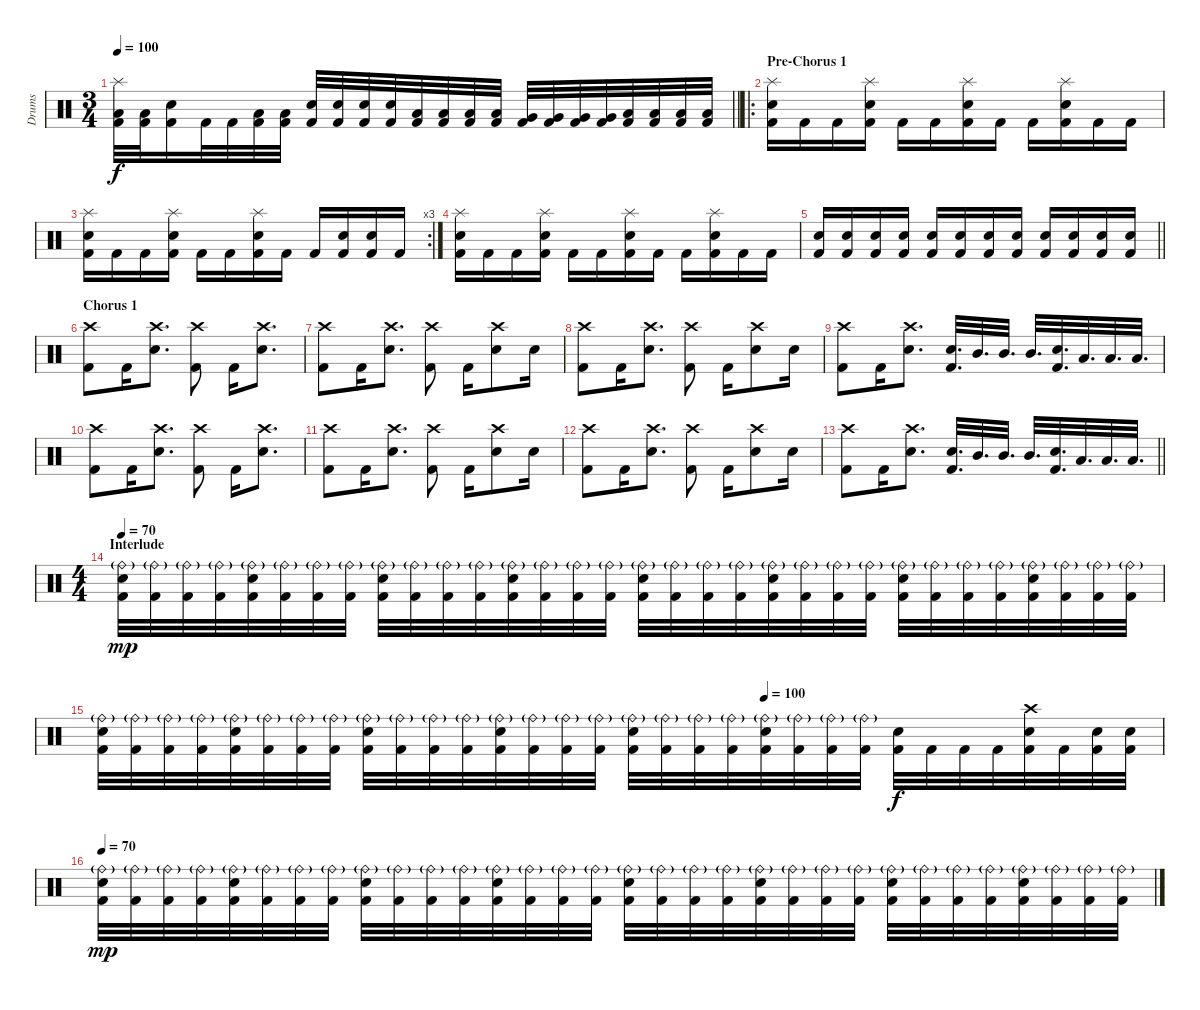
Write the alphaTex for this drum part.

\track ("Drums" "Drums") {instrument percussion}
\staff {score}
\articulation defaults
\ts (3 4)
\tempo 100
\clef neutral
\barLineRight lightlight
\ks c
("Splash (hit)" "Low Floor Tom (hit)" "Kick (hit) 2").32{dy f} ("Low Floor Tom (hit)" "Kick (hit) 2").32 ("Electric Snare (hit)" "Kick (hit) 2").16 "Kick (hit) 2".32 "Kick (hit) 2".32 ("Low Floor Tom (hit)" "Kick (hit) 2").32 ("Low Floor Tom (hit)" "Kick (hit) 2").32 ("Electric Snare (hit)" "Kick (hit) 2").32 ("Electric Snare (hit)" "Kick (hit) 2").32 ("Electric Snare (hit)" "Kick (hit) 2").32 ("Electric Snare (hit)" "Kick (hit) 2").32 ("Low Tom (hit)" "Kick (hit) 2").32 ("Low Tom (hit)" "Kick (hit) 2").32 ("Low Tom (hit)" "Kick (hit) 2").32 ("Low Tom (hit)" "Kick (hit) 2").32 ("Very Low Tom (hit)" "Kick (hit) 2").32 ("Very Low Tom (hit)" "Kick (hit) 2").32 ("Very Low Tom (hit)" "Kick (hit) 2").32 ("Very Low Tom (hit)" "Kick (hit) 2").32 ("Low Floor Tom (hit)" "Kick (hit) 2").32 ("Low Floor Tom (hit)" "Kick (hit) 2").32 ("Low Floor Tom (hit)" "Kick (hit) 2").32 ("Low Floor Tom (hit)" "Kick (hit) 2").32 |
\ro
\section ("" "Pre-Chorus 1")
("Splash (hit)" "Electric Snare (hit)" "Kick (hit) 2").16 "Kick (hit) 2".16 "Kick (hit) 2".16 ("Splash (hit)" "Electric Snare (hit)" "Kick (hit) 2").16 "Kick (hit) 2".16 "Kick (hit) 2".16 ("Splash (hit)" "Electric Snare (hit)" "Kick (hit) 2").16 "Kick (hit) 2".16 "Kick (hit) 2".16 ("Splash (hit)" "Electric Snare (hit)" "Kick (hit) 2").16 "Kick (hit) 2".16 "Kick (hit) 2".16 |
\rc 3
("Splash (hit)" "Electric Snare (hit)" "Kick (hit) 2").16 "Kick (hit) 2".16 "Kick (hit) 2".16 ("Splash (hit)" "Electric Snare (hit)" "Kick (hit) 2").16 "Kick (hit) 2".16 "Kick (hit) 2".16 ("Splash (hit)" "Electric Snare (hit)" "Kick (hit) 2").16 "Kick (hit) 2".16 "Kick (hit) 2".16 ("Electric Snare (hit)" "Kick (hit) 2").16 ("Electric Snare (hit)" "Kick (hit) 2").16 "Kick (hit) 2".16 |
("Splash (hit)" "Electric Snare (hit)" "Kick (hit) 2").16 "Kick (hit) 2".16 "Kick (hit) 2".16 ("Splash (hit)" "Electric Snare (hit)" "Kick (hit) 2").16 "Kick (hit) 2".16 "Kick (hit) 2".16 ("Splash (hit)" "Electric Snare (hit)" "Kick (hit) 2").16 "Kick (hit) 2".16 "Kick (hit) 2".16 ("Splash (hit)" "Electric Snare (hit)" "Kick (hit) 2").16 "Kick (hit) 2".16 "Kick (hit) 2".16 |
\barLineRight lightlight
("Electric Snare (hit)" "Kick (hit) 2").16 ("Electric Snare (hit)" "Kick (hit) 2").16 ("Electric Snare (hit)" "Kick (hit) 2").16 ("Electric Snare (hit)" "Kick (hit) 2").16 ("Electric Snare (hit)" "Kick (hit) 2").16 ("Electric Snare (hit)" "Kick (hit) 2").16 ("Electric Snare (hit)" "Kick (hit) 2").16 ("Electric Snare (hit)" "Kick (hit) 2").16 ("Electric Snare (hit)" "Kick (hit) 2").16 ("Electric Snare (hit)" "Kick (hit) 2").16 ("Electric Snare (hit)" "Kick (hit) 2").16 ("Electric Snare (hit)" "Kick (hit) 2").16 |
\section ("" "Chorus 1")
("Crash high (hit)" "Kick (hit) 2").8 "Kick (hit) 2".16 ("Crash high (hit)" "Electric Snare (hit)").8{d} ("Crash high (hit)" "Kick (hit) 2").8 "Kick (hit) 2".16 ("Crash high (hit)" "Electric Snare (hit)").8{d} |
("Crash high (hit)" "Kick (hit) 2").8 "Kick (hit) 2".16 ("Crash high (hit)" "Electric Snare (hit)").8{d} ("Crash high (hit)" "Kick (hit) 2").8 "Kick (hit) 2".16 ("Crash high (hit)" "Electric Snare (hit)").8 "Electric Snare (hit)".16 |
("Crash high (hit)" "Kick (hit) 2").8 "Kick (hit) 2".16 ("Crash high (hit)" "Electric Snare (hit)").8{d} ("Crash high (hit)" "Kick (hit) 2").8 "Kick (hit) 2".16 ("Crash high (hit)" "Electric Snare (hit)").8 "Electric Snare (hit)".16 |
("Crash high (hit)" "Kick (hit) 2").8 "Kick (hit) 2".16 ("Crash high (hit)" "Electric Snare (hit)").8{d} ("Electric Snare (hit)" "Kick (hit) 2").32{d} "Mid Tom (hit)".32{d} "Mid Tom (hit)".32{d} "Mid Tom (hit)".32{d} ("Electric Snare (hit)" "Kick (hit) 2").32{d} "Low Tom (hit)".32{d} "Low Tom (hit)".32{d} "Low Tom (hit)".32{d} |
("Crash high (hit)" "Kick (hit) 2").8 "Kick (hit) 2".16 ("Crash high (hit)" "Electric Snare (hit)").8{d} ("Crash high (hit)" "Kick (hit) 2").8 "Kick (hit) 2".16 ("Crash high (hit)" "Electric Snare (hit)").8{d} |
("Crash high (hit)" "Kick (hit) 2").8 "Kick (hit) 2".16 ("Crash high (hit)" "Electric Snare (hit)").8{d} ("Crash high (hit)" "Kick (hit) 2").8 "Kick (hit) 2".16 ("Crash high (hit)" "Electric Snare (hit)").8 "Electric Snare (hit)".16 |
("Crash high (hit)" "Kick (hit) 2").8 "Kick (hit) 2".16 ("Crash high (hit)" "Electric Snare (hit)").8{d} ("Crash high (hit)" "Kick (hit) 2").8 "Kick (hit) 2".16 ("Crash high (hit)" "Electric Snare (hit)").8 "Electric Snare (hit)".16 |
\barLineRight lightlight
("Crash high (hit)" "Kick (hit) 2").8 "Kick (hit) 2".16 ("Crash high (hit)" "Electric Snare (hit)").8{d} ("Electric Snare (hit)" "Kick (hit) 2").32{d} "Mid Tom (hit)".32{d} "Mid Tom (hit)".32{d} "Mid Tom (hit)".32{d} ("Electric Snare (hit)" "Kick (hit) 2").32{d} "Low Tom (hit)".32{d} "Low Tom (hit)".32{d} "Low Tom (hit)".32{d} |
\ts (4 4)
\section ("" "Interlude")
\tempo 70
("Ride (bell)"{g} "Electric Snare (hit)" "Kick (hit) 2").32{dy mp} ("Ride (bell)"{g} "Kick (hit) 2").32 ("Ride (bell)"{g} "Kick (hit) 2").32 ("Ride (bell)"{g} "Kick (hit) 2").32 ("Ride (bell)"{g} "Electric Snare (hit)" "Kick (hit) 2").32 ("Ride (bell)"{g} "Kick (hit) 2").32 ("Ride (bell)"{g} "Kick (hit) 2").32 ("Ride (bell)"{g} "Kick (hit) 2").32 ("Ride (bell)"{g} "Electric Snare (hit)" "Kick (hit) 2").32 ("Ride (bell)"{g} "Kick (hit) 2").32 ("Ride (bell)"{g} "Kick (hit) 2").32 ("Ride (bell)"{g} "Kick (hit) 2").32 ("Ride (bell)"{g} "Electric Snare (hit)" "Kick (hit) 2").32 ("Ride (bell)"{g} "Kick (hit) 2").32 ("Ride (bell)"{g} "Kick (hit) 2").32 ("Ride (bell)"{g} "Kick (hit) 2").32 ("Ride (bell)"{g} "Electric Snare (hit)" "Kick (hit) 2").32 ("Ride (bell)"{g} "Kick (hit) 2").32 ("Ride (bell)"{g} "Kick (hit) 2").32 ("Ride (bell)"{g} "Kick (hit) 2").32 ("Ride (bell)"{g} "Electric Snare (hit)" "Kick (hit) 2").32 ("Ride (bell)"{g} "Kick (hit) 2").32 ("Ride (bell)"{g} "Kick (hit) 2").32 ("Ride (bell)"{g} "Kick (hit) 2").32 ("Ride (bell)"{g} "Electric Snare (hit)" "Kick (hit) 2").32 ("Ride (bell)"{g} "Kick (hit) 2").32 ("Ride (bell)"{g} "Kick (hit) 2").32 ("Ride (bell)"{g} "Kick (hit) 2").32 ("Ride (bell)"{g} "Electric Snare (hit)" "Kick (hit) 2").32 ("Ride (bell)"{g} "Kick (hit) 2").32 ("Ride (bell)"{g} "Kick (hit) 2").32 ("Ride (bell)"{g} "Kick (hit) 2").32 |
\tempo (100 0.625)
("Ride (bell)"{g} "Electric Snare (hit)" "Kick (hit) 2").32 ("Ride (bell)"{g} "Kick (hit) 2").32 ("Ride (bell)"{g} "Kick (hit) 2").32 ("Ride (bell)"{g} "Kick (hit) 2").32 ("Ride (bell)"{g} "Electric Snare (hit)" "Kick (hit) 2").32 ("Ride (bell)"{g} "Kick (hit) 2").32 ("Ride (bell)"{g} "Kick (hit) 2").32 ("Ride (bell)"{g} "Kick (hit) 2").32 ("Ride (bell)"{g} "Electric Snare (hit)" "Kick (hit) 2").32 ("Ride (bell)"{g} "Kick (hit) 2").32 ("Ride (bell)"{g} "Kick (hit) 2").32 ("Ride (bell)"{g} "Kick (hit) 2").32 ("Ride (bell)"{g} "Electric Snare (hit)" "Kick (hit) 2").32 ("Ride (bell)"{g} "Kick (hit) 2").32 ("Ride (bell)"{g} "Kick (hit) 2").32 ("Ride (bell)"{g} "Kick (hit) 2").32 ("Ride (bell)"{g} "Electric Snare (hit)" "Kick (hit) 2").32 ("Ride (bell)"{g} "Kick (hit) 2").32 ("Ride (bell)"{g} "Kick (hit) 2").32 ("Ride (bell)"{g} "Kick (hit) 2").32 ("Ride (bell)"{g} "Electric Snare (hit)" "Kick (hit) 2").32 ("Ride (bell)"{g} "Kick (hit) 2").32 ("Ride (bell)"{g} "Kick (hit) 2").32 ("Ride (bell)"{g} "Kick (hit) 2").32 ("Electric Snare (hit)" "Kick (hit) 2").32{dy f} "Kick (hit) 2".32 "Kick (hit) 2".32 "Kick (hit) 2".32 ("Crash high (hit)" "Electric Snare (hit)" "Kick (hit) 2").32 "Kick (hit) 2".32 ("Electric Snare (hit)" "Kick (hit) 2").32 ("Electric Snare (hit)" "Kick (hit) 2").32 |
\tempo 70
("Ride (bell)"{g} "Electric Snare (hit)" "Kick (hit) 2").32{dy mp} ("Ride (bell)"{g} "Kick (hit) 2").32 ("Ride (bell)"{g} "Kick (hit) 2").32 ("Ride (bell)"{g} "Kick (hit) 2").32 ("Ride (bell)"{g} "Electric Snare (hit)" "Kick (hit) 2").32 ("Ride (bell)"{g} "Kick (hit) 2").32 ("Ride (bell)"{g} "Kick (hit) 2").32 ("Ride (bell)"{g} "Kick (hit) 2").32 ("Ride (bell)"{g} "Electric Snare (hit)" "Kick (hit) 2").32 ("Ride (bell)"{g} "Kick (hit) 2").32 ("Ride (bell)"{g} "Kick (hit) 2").32 ("Ride (bell)"{g} "Kick (hit) 2").32 ("Ride (bell)"{g} "Electric Snare (hit)" "Kick (hit) 2").32 ("Ride (bell)"{g} "Kick (hit) 2").32 ("Ride (bell)"{g} "Kick (hit) 2").32 ("Ride (bell)"{g} "Kick (hit) 2").32 ("Ride (bell)"{g} "Electric Snare (hit)" "Kick (hit) 2").32 ("Ride (bell)"{g} "Kick (hit) 2").32 ("Ride (bell)"{g} "Kick (hit) 2").32 ("Ride (bell)"{g} "Kick (hit) 2").32 ("Ride (bell)"{g} "Electric Snare (hit)" "Kick (hit) 2").32 ("Ride (bell)"{g} "Kick (hit) 2").32 ("Ride (bell)"{g} "Kick (hit) 2").32 ("Ride (bell)"{g} "Kick (hit) 2").32 ("Ride (bell)"{g} "Electric Snare (hit)" "Kick (hit) 2").32 ("Ride (bell)"{g} "Kick (hit) 2").32 ("Ride (bell)"{g} "Kick (hit) 2").32 ("Ride (bell)"{g} "Kick (hit) 2").32 ("Ride (bell)"{g} "Electric Snare (hit)" "Kick (hit) 2").32 ("Ride (bell)"{g} "Kick (hit) 2").32 ("Ride (bell)"{g} "Kick (hit) 2").32 ("Ride (bell)"{g} "Kick (hit) 2").32
